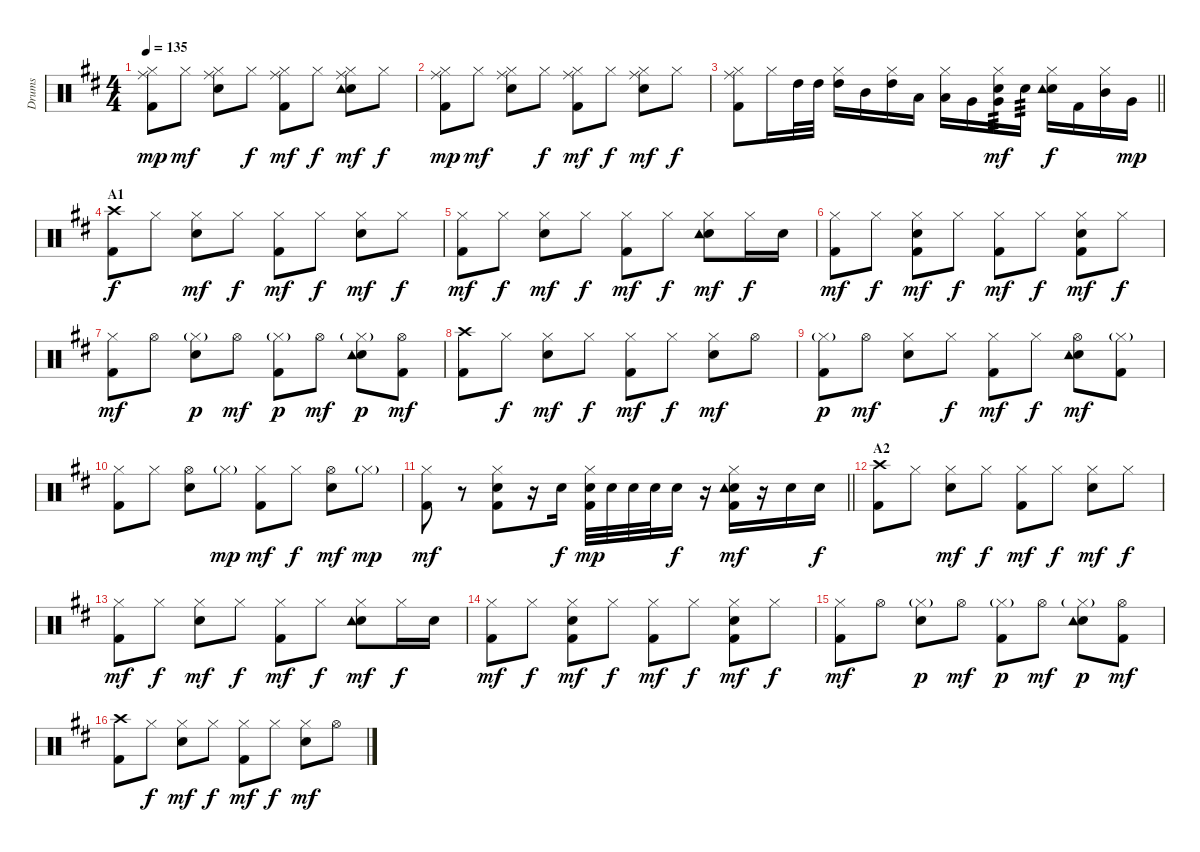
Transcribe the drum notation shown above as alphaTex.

\track ("Drums" "Drums") {instrument percussion}
\staff {score}
\articulation defaults
\ts (4 4)
\tempo 135
\clef neutral
\ks d
("Ride (middle)" "Hi-Hat (closed)" "Kick (hit) 2").8{dy mp} "Hi-Hat (closed)".8{dy mf} ("Ride (middle)" "Hi-Hat (closed)" "Electric Snare (hit)").8 "Hi-Hat (closed)".8{dy f} ("Ride (middle)" "Hi-Hat (closed)" "Kick (hit) 2").8{dy mf} "Hi-Hat (closed)".8{dy f} ("Ride (middle)" "Hi-Hat (closed)" "Electric Snare (hit)" "Tambourine (hit)").8{dy mf} "Hi-Hat (closed)".8{dy f} |
("Ride (middle)" "Hi-Hat (closed)" "Kick (hit) 2").8{dy mp} "Hi-Hat (closed)".8{dy mf} ("Ride (middle)" "Hi-Hat (closed)" "Electric Snare (hit)").8 "Hi-Hat (closed)".8{dy f} ("Ride (middle)" "Hi-Hat (closed)" "Kick (hit) 2").8{dy mf} "Hi-Hat (closed)".8{dy f} ("Ride (middle)" "Hi-Hat (closed)" "Electric Snare (hit)").8{dy mf} "Hi-Hat (closed)".8{dy f} |
\barLineRight lightlight
("Ride (middle)" "Hi-Hat (closed)" "Kick (hit) 2").8 "Hi-Hat (closed)".16 "High Tom (hit)".32 "High Tom (hit)".32 ("Hi-Hat (closed)" "High Tom (hit)").16 "Mid Tom (hit)".16 ("Hi-Hat (closed)" "High Tom (hit)").16 "Low Tom (hit)".16 ("Hi-Hat (closed)" "Low Tom (hit)").16 "Very Low Tom (hit)".16 ("Hi-Hat (closed)" "Very Low Tom (hit)" "Electric Snare (hit)").16{tp 3 dy mf} "Electric Snare (hit)".16{tp 3} ("Hi-Hat (closed)" "Electric Snare (hit)" "Tambourine (hit)").16{dy f} "Kick (hit) 2".16 ("Hi-Hat (closed)" "Mid Tom (hit)").16 "Very Low Tom (hit)".16{dy mp} |
\section ("" "A1")
("Crash high (hit)" "Kick (hit) 2").8{dy f} "Hi-Hat (closed)".8 ("Hi-Hat (closed)" "Electric Snare (hit)").8{dy mf} "Hi-Hat (closed)".8{dy f} ("Hi-Hat (closed)" "Kick (hit) 2").8{dy mf} "Hi-Hat (closed)".8{dy f} ("Hi-Hat (closed)" "Electric Snare (hit)").8{dy mf} "Hi-Hat (closed)".8{dy f} |
("Hi-Hat (closed)" "Kick (hit) 2").8{dy mf} "Hi-Hat (closed)".8{dy f} ("Hi-Hat (closed)" "Electric Snare (hit)").8{dy mf} "Hi-Hat (closed)".8{dy f} ("Hi-Hat (closed)" "Kick (hit) 2").8{dy mf} "Hi-Hat (closed)".8{dy f} ("Hi-Hat (closed)" "Electric Snare (hit)" "Tambourine (hit)").8{dy mf} "Hi-Hat (closed)".16{dy f} "Electric Snare (hit)".16 |
("Hi-Hat (closed)" "Kick (hit) 2").8{dy mf} "Hi-Hat (closed)".8{dy f} ("Hi-Hat (closed)" "Electric Snare (hit)" "Kick (hit) 2").8{dy mf} "Hi-Hat (closed)".8{dy f} ("Hi-Hat (closed)" "Kick (hit) 2").8{dy mf} "Hi-Hat (closed)".8{dy f} ("Hi-Hat (closed)" "Electric Snare (hit)" "Kick (hit) 2").8{dy mf} "Hi-Hat (closed)".8{dy f} |
("Hi-Hat (closed)" "Kick (hit) 2").8{dy mf} "Hi-Hat (open)".8 ("Hi-Hat (closed)"{g} "Electric Snare (hit)").8{dy p} "Hi-Hat (open)".8{dy mf} ("Hi-Hat (closed)"{g} "Kick (hit) 2").8{dy p} "Hi-Hat (open)".8{dy mf} ("Hi-Hat (closed)"{g} "Electric Snare (hit)" "Tambourine (hit)").8{dy p} ("Hi-Hat (open)" "Kick (hit) 2").8{dy mf} |
("Crash high (hit)" "Kick (hit) 2").8 "Hi-Hat (closed)".8{dy f} ("Hi-Hat (closed)" "Electric Snare (hit)").8{dy mf} "Hi-Hat (closed)".8{dy f} ("Hi-Hat (closed)" "Kick (hit) 2").8{dy mf} "Hi-Hat (closed)".8{dy f} ("Hi-Hat (closed)" "Electric Snare (hit)").8{dy mf} "Hi-Hat (open)".8 |
("Hi-Hat (closed)"{g} "Kick (hit) 2").8{dy p} "Hi-Hat (open)".8{dy mf} ("Hi-Hat (closed)" "Electric Snare (hit)").8 "Hi-Hat (closed)".8{dy f} ("Hi-Hat (closed)" "Kick (hit) 2").8{dy mf} "Hi-Hat (closed)".8{dy f} ("Hi-Hat (open)" "Electric Snare (hit)" "Tambourine (hit)").8{dy mf} ("Hi-Hat (closed)"{g} "Kick (hit) 2").8 |
("Hi-Hat (closed)" "Kick (hit) 2").8 "Hi-Hat (closed)".8 ("Hi-Hat (open)" "Electric Snare (hit)").8 "Hi-Hat (closed)"{g}.8{dy mp} ("Hi-Hat (closed)" "Kick (hit) 2").8{dy mf} "Hi-Hat (closed)".8{dy f} ("Hi-Hat (open)" "Electric Snare (hit)").8{dy mf} "Hi-Hat (closed)"{g}.8{dy mp} |
\barLineRight lightlight
("Hi-Hat (closed)" "Kick (hit) 2").8{dy mf} r.8 ("Hi-Hat (closed)" "Electric Snare (hit)" "Kick (hit) 2").8 r.16 "Electric Snare (hit)".16{dy f} ("Hi-Hat (closed)" "Electric Snare (hit)" "Kick (hit) 2").32{dy mp} "Electric Snare (hit)".32 "Electric Snare (hit)".32 "Electric Snare (hit)".32 "Electric Snare (hit)".16{dy f} r.16 ("Hi-Hat (closed)" "Electric Snare (hit)" "Kick (hit) 2" "Tambourine (hit)").16{dy mf} r.16 "Electric Snare (hit)".16 "Electric Snare (hit)".16{dy f} |
\section ("" "A2")
("Crash high (hit)" "Kick (hit) 2").8 "Hi-Hat (closed)".8 ("Hi-Hat (closed)" "Electric Snare (hit)").8{dy mf} "Hi-Hat (closed)".8{dy f} ("Hi-Hat (closed)" "Kick (hit) 2").8{dy mf} "Hi-Hat (closed)".8{dy f} ("Hi-Hat (closed)" "Electric Snare (hit)").8{dy mf} "Hi-Hat (closed)".8{dy f} |
("Hi-Hat (closed)" "Kick (hit) 2").8{dy mf} "Hi-Hat (closed)".8{dy f} ("Hi-Hat (closed)" "Electric Snare (hit)").8{dy mf} "Hi-Hat (closed)".8{dy f} ("Hi-Hat (closed)" "Kick (hit) 2").8{dy mf} "Hi-Hat (closed)".8{dy f} ("Hi-Hat (closed)" "Electric Snare (hit)" "Tambourine (hit)").8{dy mf} "Hi-Hat (closed)".16{dy f} "Electric Snare (hit)".16 |
("Hi-Hat (closed)" "Kick (hit) 2").8{dy mf} "Hi-Hat (closed)".8{dy f} ("Hi-Hat (closed)" "Electric Snare (hit)" "Kick (hit) 2").8{dy mf} "Hi-Hat (closed)".8{dy f} ("Hi-Hat (closed)" "Kick (hit) 2").8{dy mf} "Hi-Hat (closed)".8{dy f} ("Hi-Hat (closed)" "Electric Snare (hit)" "Kick (hit) 2").8{dy mf} "Hi-Hat (closed)".8{dy f} |
("Hi-Hat (closed)" "Kick (hit) 2").8{dy mf} "Hi-Hat (open)".8 ("Hi-Hat (closed)"{g} "Electric Snare (hit)").8{dy p} "Hi-Hat (open)".8{dy mf} ("Hi-Hat (closed)"{g} "Kick (hit) 2").8{dy p} "Hi-Hat (open)".8{dy mf} ("Hi-Hat (closed)"{g} "Electric Snare (hit)" "Tambourine (hit)").8{dy p} ("Hi-Hat (open)" "Kick (hit) 2").8{dy mf} |
("Crash high (hit)" "Kick (hit) 2").8 "Hi-Hat (closed)".8{dy f} ("Hi-Hat (closed)" "Electric Snare (hit)").8{dy mf} "Hi-Hat (closed)".8{dy f} ("Hi-Hat (closed)" "Kick (hit) 2").8{dy mf} "Hi-Hat (closed)".8{dy f} ("Hi-Hat (closed)" "Electric Snare (hit)").8{dy mf} "Hi-Hat (open)".8
